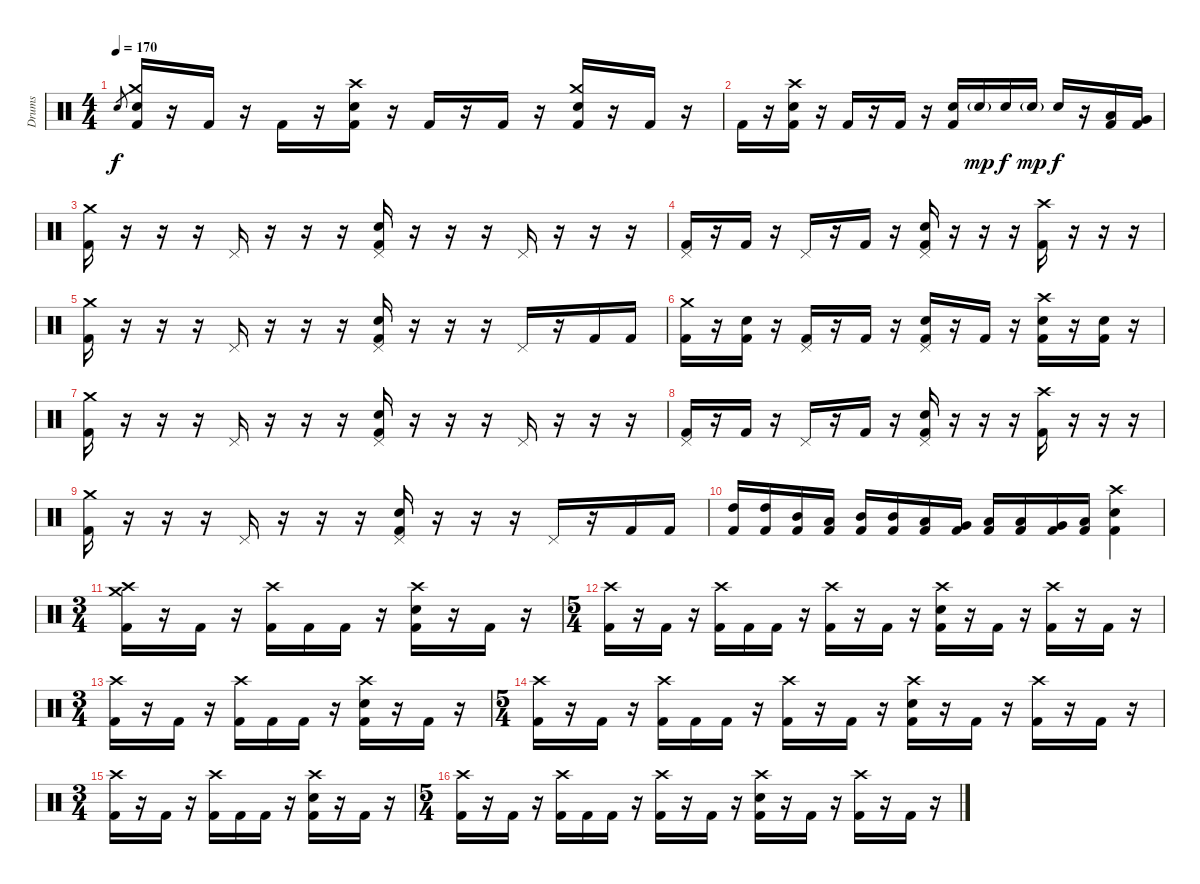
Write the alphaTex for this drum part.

\track ("Drums" "Drums") {instrument percussion}
\staff {score}
\articulation defaults
\ts (4 4)
\tempo 170
\clef neutral
\ks c "Electric Snare (hit)".8{gr dy f}
("Crash medium (hit)" "Electric Snare (hit)" "Kick (hit) 2").16 r.16 "Kick (hit) 2".16 r.16 "Kick (hit) 2".16 r.16 ("Crash high (hit)" "Electric Snare (hit)" "Kick (hit) 2").16 r.16 "Kick (hit) 2".16 r.16 "Kick (hit) 2".16 r.16 ("Crash medium (hit)" "Electric Snare (hit)" "Kick (hit) 2").16 r.16 "Kick (hit) 2".16 r.16 |
"Kick (hit) 2".16 r.16 ("Crash high (hit)" "Electric Snare (hit)" "Kick (hit) 2").16 r.16 "Kick (hit) 2".16 r.16 "Kick (hit) 2".16 r.16 ("Electric Snare (hit)" "Kick (hit) 2").16 "Electric Snare (hit)"{g}.16{dy mp} "Electric Snare (hit)".16{dy f} "Electric Snare (hit)"{g}.16{dy mp} "Electric Snare (hit)".16{dy f} r.16 ("Low Tom (hit)" "Kick (hit) 2").16 ("Very Low Tom (hit)" "Kick (hit) 2").16 |
\section ("" "")
("Crash medium (hit)" "Kick (hit) 2").16 r.16 r.16 r.16 "Pedal Hi-Hat (hit)".16 r.16 r.16 r.16 ("Pedal Hi-Hat (hit)" "Electric Snare (hit)" "Kick (hit) 2").16 r.16 r.16 r.16 "Pedal Hi-Hat (hit)".16 r.16 r.16 r.16 |
("Pedal Hi-Hat (hit)" "Kick (hit) 2").16 r.16 "Kick (hit) 2".16 r.16 "Pedal Hi-Hat (hit)".16 r.16 "Kick (hit) 2".16 r.16 ("Pedal Hi-Hat (hit)" "Electric Snare (hit)" "Kick (hit) 2").16 r.16 r.16 r.16 ("Crash high (hit)" "Kick (hit) 2").16 r.16 r.16 r.16 |
("Crash medium (hit)" "Kick (hit) 2").16 r.16 r.16 r.16 "Pedal Hi-Hat (hit)".16 r.16 r.16 r.16 ("Pedal Hi-Hat (hit)" "Electric Snare (hit)" "Kick (hit) 2").16 r.16 r.16 r.16 "Pedal Hi-Hat (hit)".16 r.16 "Kick (hit) 2".16 "Kick (hit) 2".16 |
("Crash medium (hit)" "Kick (hit) 2").16 r.16 ("Electric Snare (hit)" "Kick (hit) 2").16 r.16 ("Pedal Hi-Hat (hit)" "Kick (hit) 2").16 r.16 "Kick (hit) 2".16 r.16 ("Pedal Hi-Hat (hit)" "Electric Snare (hit)" "Kick (hit) 2").16 r.16 "Kick (hit) 2".16 r.16 ("Crash high (hit)" "Electric Snare (hit)" "Kick (hit) 2").16 r.16 ("Electric Snare (hit)" "Kick (hit) 2").16 r.16 |
("Crash medium (hit)" "Kick (hit) 2").16 r.16 r.16 r.16 "Pedal Hi-Hat (hit)".16 r.16 r.16 r.16 ("Pedal Hi-Hat (hit)" "Electric Snare (hit)" "Kick (hit) 2").16 r.16 r.16 r.16 "Pedal Hi-Hat (hit)".16 r.16 r.16 r.16 |
("Pedal Hi-Hat (hit)" "Kick (hit) 2").16 r.16 "Kick (hit) 2".16 r.16 "Pedal Hi-Hat (hit)".16 r.16 "Kick (hit) 2".16 r.16 ("Pedal Hi-Hat (hit)" "Electric Snare (hit)" "Kick (hit) 2").16 r.16 r.16 r.16 ("Crash high (hit)" "Kick (hit) 2").16 r.16 r.16 r.16 |
("Crash medium (hit)" "Kick (hit) 2").16 r.16 r.16 r.16 "Pedal Hi-Hat (hit)".16 r.16 r.16 r.16 ("Pedal Hi-Hat (hit)" "Electric Snare (hit)" "Kick (hit) 2").16 r.16 r.16 r.16 "Pedal Hi-Hat (hit)".16 r.16 "Kick (hit) 2".16 "Kick (hit) 2".16 |
("High Tom (hit)" "Kick (hit) 2").16 ("High Tom (hit)" "Kick (hit) 2").16 ("Mid Tom (hit)" "Kick (hit) 2").16 ("Low Tom (hit)" "Kick (hit) 2").16 ("Mid Tom (hit)" "Kick (hit) 2").16 ("Mid Tom (hit)" "Kick (hit) 2").16 ("Low Tom (hit)" "Kick (hit) 2").16 ("Very Low Tom (hit)" "Kick (hit) 2").16 ("Low Tom (hit)" "Kick (hit) 2").16 ("Low Tom (hit)" "Kick (hit) 2").16 ("Very Low Tom (hit)" "Kick (hit) 2").16 ("Low Floor Tom (hit)" "Kick (hit) 2").16 ("Crash high (hit)" "Electric Snare (hit)" "Kick (hit) 2").4 |
\ts (3 4)
\section ("" "")
("Crash medium (hit)" "Crash high (hit)" "Kick (hit) 2").16 r.16 "Kick (hit) 2".16 r.16 ("Crash high (hit)" "Kick (hit) 2").16 "Kick (hit) 2".16 "Kick (hit) 2".16 r.16 ("Crash high (hit)" "Electric Snare (hit)" "Kick (hit) 2").16 r.16 "Kick (hit) 2".16 r.16 |
\ts (5 4)
("Crash high (hit)" "Kick (hit) 2").16 r.16 "Kick (hit) 2".16 r.16 ("Crash high (hit)" "Kick (hit) 2").16 "Kick (hit) 2".16 "Kick (hit) 2".16 r.16 ("Crash high (hit)" "Kick (hit) 2").16 r.16 "Kick (hit) 2".16 r.16 ("Crash high (hit)" "Electric Snare (hit)" "Kick (hit) 2").16 r.16 "Kick (hit) 2".16 r.16 ("Crash high (hit)" "Kick (hit) 2").16 r.16 "Kick (hit) 2".16 r.16 |
\ts (3 4)
("Crash high (hit)" "Kick (hit) 2").16 r.16 "Kick (hit) 2".16 r.16 ("Crash high (hit)" "Kick (hit) 2").16 "Kick (hit) 2".16 "Kick (hit) 2".16 r.16 ("Crash high (hit)" "Electric Snare (hit)" "Kick (hit) 2").16 r.16 "Kick (hit) 2".16 r.16 |
\ts (5 4)
("Crash high (hit)" "Kick (hit) 2").16 r.16 "Kick (hit) 2".16 r.16 ("Crash high (hit)" "Kick (hit) 2").16 "Kick (hit) 2".16 "Kick (hit) 2".16 r.16 ("Crash high (hit)" "Kick (hit) 2").16 r.16 "Kick (hit) 2".16 r.16 ("Crash high (hit)" "Electric Snare (hit)" "Kick (hit) 2").16 r.16 "Kick (hit) 2".16 r.16 ("Crash high (hit)" "Kick (hit) 2").16 r.16 "Kick (hit) 2".16 r.16 |
\ts (3 4)
("Crash high (hit)" "Kick (hit) 2").16 r.16 "Kick (hit) 2".16 r.16 ("Crash high (hit)" "Kick (hit) 2").16 "Kick (hit) 2".16 "Kick (hit) 2".16 r.16 ("Crash high (hit)" "Electric Snare (hit)" "Kick (hit) 2").16 r.16 "Kick (hit) 2".16 r.16 |
\ts (5 4)
("Crash high (hit)" "Kick (hit) 2").16 r.16 "Kick (hit) 2".16 r.16 ("Crash high (hit)" "Kick (hit) 2").16 "Kick (hit) 2".16 "Kick (hit) 2".16 r.16 ("Crash high (hit)" "Kick (hit) 2").16 r.16 "Kick (hit) 2".16 r.16 ("Crash high (hit)" "Electric Snare (hit)" "Kick (hit) 2").16 r.16 "Kick (hit) 2".16 r.16 ("Crash high (hit)" "Kick (hit) 2").16 r.16 "Kick (hit) 2".16 r.16
